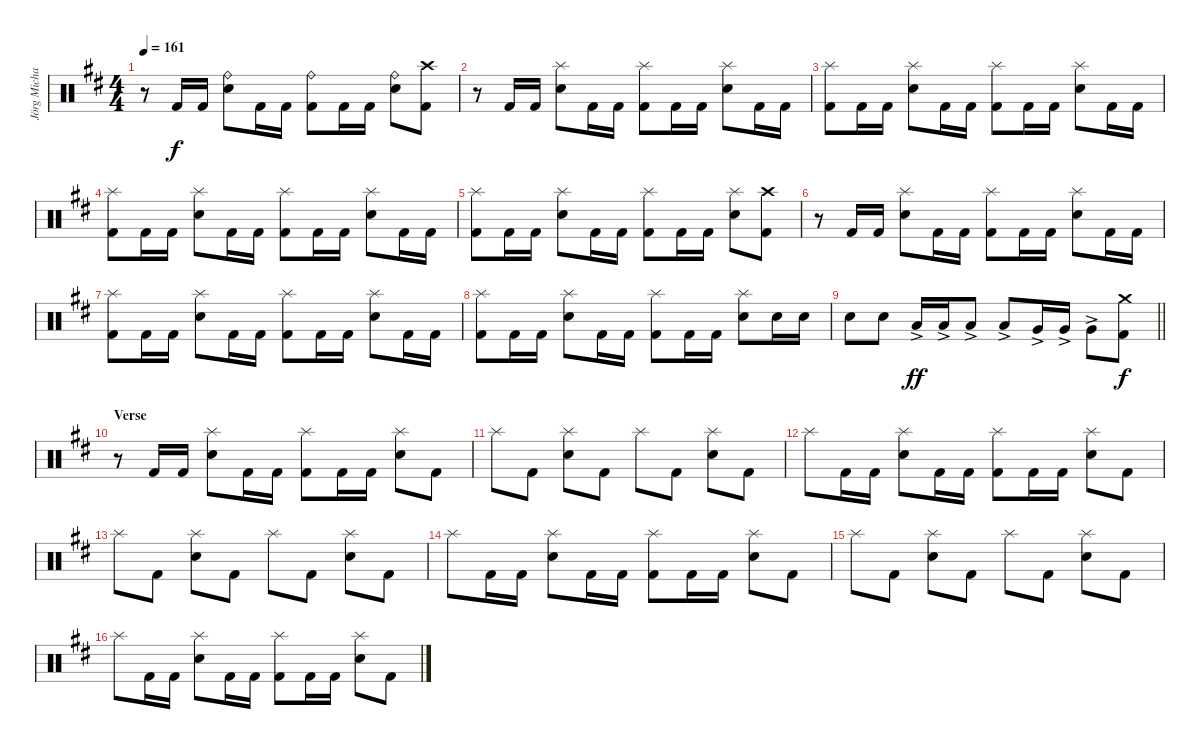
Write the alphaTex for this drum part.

\track ("Jörg Michael" "Jörg Micha") {instrument percussion}
\staff {score}
\articulation defaults
\ts (4 4)
\tempo 161
\clef neutral
\ks bminor
r.8{dy f} "Kick (hit) 2".16 "Kick (hit) 2".16 ("Ride (bell)" "Snare (hit) 2").8 "Kick (hit) 2".16 "Kick (hit) 2".16 ("Ride (bell)" "Kick (hit) 2").8 "Kick (hit) 2".16 "Kick (hit) 2".16 ("Ride (bell)" "Snare (hit) 2").8 ("Crash high (hit)" "Kick (hit) 2").8 |
r.8 "Kick (hit) 2".16 "Kick (hit) 2".16 ("Splash (hit)" "Snare (hit) 2").8 "Kick (hit) 2".16 "Kick (hit) 2".16 ("Splash (hit)" "Kick (hit) 2").8 "Kick (hit) 2".16 "Kick (hit) 2".16 ("Splash (hit)" "Snare (hit) 2").8 "Kick (hit) 2".16 "Kick (hit) 2".16 |
("Splash (hit)" "Kick (hit) 2").8 "Kick (hit) 2".16 "Kick (hit) 2".16 ("Splash (hit)" "Snare (hit) 2").8 "Kick (hit) 2".16 "Kick (hit) 2".16 ("Splash (hit)" "Kick (hit) 2").8 "Kick (hit) 2".16 "Kick (hit) 2".16 ("Splash (hit)" "Snare (hit) 2").8 "Kick (hit) 2".16 "Kick (hit) 2".16 |
("Splash (hit)" "Kick (hit) 2").8 "Kick (hit) 2".16 "Kick (hit) 2".16 ("Splash (hit)" "Snare (hit) 2").8 "Kick (hit) 2".16 "Kick (hit) 2".16 ("Splash (hit)" "Kick (hit) 2").8 "Kick (hit) 2".16 "Kick (hit) 2".16 ("Splash (hit)" "Snare (hit) 2").8 "Kick (hit) 2".16 "Kick (hit) 2".16 |
("Splash (hit)" "Kick (hit) 2").8 "Kick (hit) 2".16 "Kick (hit) 2".16 ("Splash (hit)" "Snare (hit) 2").8 "Kick (hit) 2".16 "Kick (hit) 2".16 ("Splash (hit)" "Kick (hit) 2").8 "Kick (hit) 2".16 "Kick (hit) 2".16 ("Splash (hit)" "Snare (hit) 2").8 ("Crash high (hit)" "Kick (hit) 2").8 |
r.8 "Kick (hit) 2".16 "Kick (hit) 2".16 ("Splash (hit)" "Snare (hit) 2").8 "Kick (hit) 2".16 "Kick (hit) 2".16 ("Splash (hit)" "Kick (hit) 2").8 "Kick (hit) 2".16 "Kick (hit) 2".16 ("Splash (hit)" "Snare (hit) 2").8 "Kick (hit) 2".16 "Kick (hit) 2".16 |
("Splash (hit)" "Kick (hit) 2").8 "Kick (hit) 2".16 "Kick (hit) 2".16 ("Splash (hit)" "Snare (hit) 2").8 "Kick (hit) 2".16 "Kick (hit) 2".16 ("Splash (hit)" "Kick (hit) 2").8 "Kick (hit) 2".16 "Kick (hit) 2".16 ("Splash (hit)" "Snare (hit) 2").8 "Kick (hit) 2".16 "Kick (hit) 2".16 |
("Splash (hit)" "Kick (hit) 2").8 "Kick (hit) 2".16 "Kick (hit) 2".16 ("Splash (hit)" "Snare (hit) 2").8 "Kick (hit) 2".16 "Kick (hit) 2".16 ("Splash (hit)" "Kick (hit) 2").8 "Kick (hit) 2".16 "Kick (hit) 2".16 ("Splash (hit)" "Snare (hit) 2").8 "Snare (hit) 2".16 "Snare (hit) 2".16 |
\barLineRight lightlight "Snare (hit) 2".8 "Snare (hit) 2".8 "Low Tom (hit)"{ac}.16{dy ff} "Low Tom (hit)"{ac}.16 "Low Tom (hit)"{ac}.8 "Low Tom (hit)"{ac}.8 "Very Low Tom (hit)"{ac}.16 "Very Low Tom (hit)"{ac}.16 "Very Low Tom (hit)"{ac}.8
("Crash medium (hit)" "Kick (hit) 2").8{dy f} |
\section ("" "Verse")
r.8 "Kick (hit) 2".16 "Kick (hit) 2".16 ("Splash (hit)" "Snare (hit) 2").8 "Kick (hit) 2".16 "Kick (hit) 2".16 ("Splash (hit)" "Kick (hit) 2").8 "Kick (hit) 2".16 "Kick (hit) 2".16 ("Splash (hit)" "Snare (hit) 2").8 "Kick (hit) 2".8 |
"Splash (hit)".8 "Kick (hit) 2".8 ("Splash (hit)" "Snare (hit) 2").8 "Kick (hit) 2".8 "Splash (hit)".8 "Kick (hit) 2".8 ("Splash (hit)" "Snare (hit) 2").8 "Kick (hit) 2".8 |
"Splash (hit)".8 "Kick (hit) 2".16 "Kick (hit) 2".16 ("Splash (hit)" "Snare (hit) 2").8 "Kick (hit) 2".16 "Kick (hit) 2".16 ("Splash (hit)" "Kick (hit) 2").8 "Kick (hit) 2".16 "Kick (hit) 2".16 ("Splash (hit)" "Snare (hit) 2").8 "Kick (hit) 2".8 |
"Splash (hit)".8 "Kick (hit) 2".8 ("Splash (hit)" "Snare (hit) 2").8 "Kick (hit) 2".8 "Splash (hit)".8 "Kick (hit) 2".8 ("Splash (hit)" "Snare (hit) 2").8 "Kick (hit) 2".8 |
"Splash (hit)".8 "Kick (hit) 2".16 "Kick (hit) 2".16 ("Splash (hit)" "Snare (hit) 2").8 "Kick (hit) 2".16 "Kick (hit) 2".16 ("Splash (hit)" "Kick (hit) 2").8 "Kick (hit) 2".16 "Kick (hit) 2".16 ("Splash (hit)" "Snare (hit) 2").8 "Kick (hit) 2".8 |
"Splash (hit)".8 "Kick (hit) 2".8 ("Splash (hit)" "Snare (hit) 2").8 "Kick (hit) 2".8 "Splash (hit)".8 "Kick (hit) 2".8 ("Splash (hit)" "Snare (hit) 2").8 "Kick (hit) 2".8 |
"Splash (hit)".8 "Kick (hit) 2".16 "Kick (hit) 2".16 ("Splash (hit)" "Snare (hit) 2").8 "Kick (hit) 2".16 "Kick (hit) 2".16 ("Splash (hit)" "Kick (hit) 2").8 "Kick (hit) 2".16 "Kick (hit) 2".16 ("Splash (hit)" "Snare (hit) 2").8 "Kick (hit) 2".8
